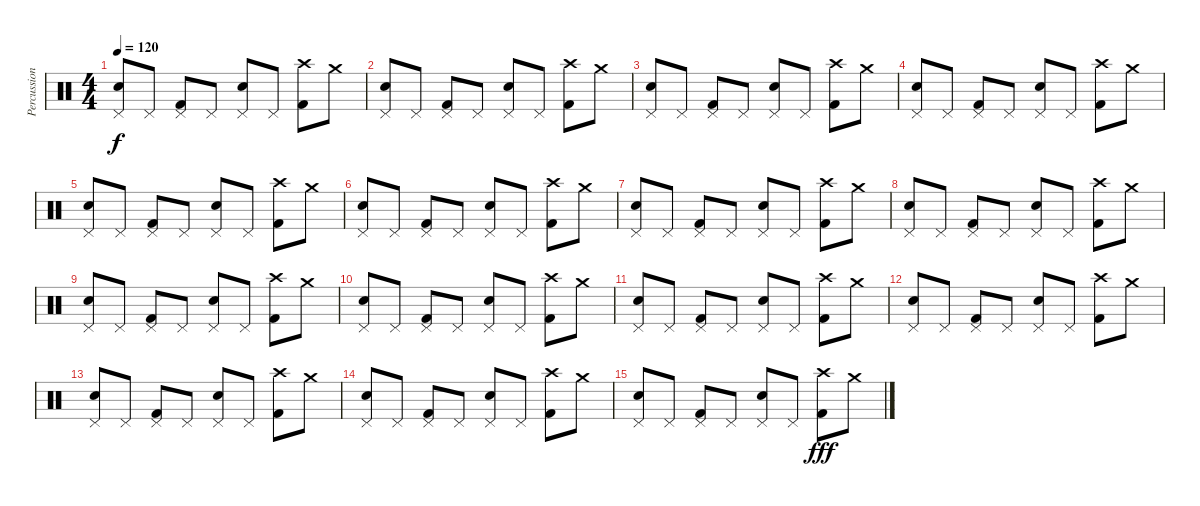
\track ("Percussion" "Percussion") {instrument percussion}
\staff {score}
\articulation defaults
\ts (4 4)
\tempo 120
\clef neutral
\ks c
("Pedal Hi-Hat (hit)" "Snare (hit) 2").8{dy f} "Pedal Hi-Hat (hit)".8 ("Pedal Hi-Hat (hit)" "Kick (hit) 2").8 "Pedal Hi-Hat (hit)".8 ("Pedal Hi-Hat (hit)" "Snare (hit) 2").8 "Pedal Hi-Hat (hit)".8 ("Crash high (hit)" "Kick (hit) 2").8 "Crash medium (hit)".8 |
("Pedal Hi-Hat (hit)" "Snare (hit) 2").8 "Pedal Hi-Hat (hit)".8 ("Pedal Hi-Hat (hit)" "Kick (hit) 2").8 "Pedal Hi-Hat (hit)".8 ("Pedal Hi-Hat (hit)" "Snare (hit) 2").8 "Pedal Hi-Hat (hit)".8 ("Crash high (hit)" "Kick (hit) 2").8 "Crash medium (hit)".8 |
("Pedal Hi-Hat (hit)" "Snare (hit) 2").8 "Pedal Hi-Hat (hit)".8 ("Pedal Hi-Hat (hit)" "Kick (hit) 2").8 "Pedal Hi-Hat (hit)".8 ("Pedal Hi-Hat (hit)" "Snare (hit) 2").8 "Pedal Hi-Hat (hit)".8 ("Crash high (hit)" "Kick (hit) 2").8 "Crash medium (hit)".8 |
("Pedal Hi-Hat (hit)" "Snare (hit) 2").8 "Pedal Hi-Hat (hit)".8 ("Pedal Hi-Hat (hit)" "Kick (hit) 2").8 "Pedal Hi-Hat (hit)".8 ("Pedal Hi-Hat (hit)" "Snare (hit) 2").8 "Pedal Hi-Hat (hit)".8 ("Crash high (hit)" "Kick (hit) 2").8 "Crash medium (hit)".8 |
("Pedal Hi-Hat (hit)" "Snare (hit) 2").8 "Pedal Hi-Hat (hit)".8 ("Pedal Hi-Hat (hit)" "Kick (hit) 2").8 "Pedal Hi-Hat (hit)".8 ("Pedal Hi-Hat (hit)" "Snare (hit) 2").8 "Pedal Hi-Hat (hit)".8 ("Crash high (hit)" "Kick (hit) 2").8 "Crash medium (hit)".8 |
("Pedal Hi-Hat (hit)" "Snare (hit) 2").8 "Pedal Hi-Hat (hit)".8 ("Pedal Hi-Hat (hit)" "Kick (hit) 2").8 "Pedal Hi-Hat (hit)".8 ("Pedal Hi-Hat (hit)" "Snare (hit) 2").8 "Pedal Hi-Hat (hit)".8 ("Crash high (hit)" "Kick (hit) 2").8 "Crash medium (hit)".8 |
("Pedal Hi-Hat (hit)" "Snare (hit) 2").8 "Pedal Hi-Hat (hit)".8 ("Pedal Hi-Hat (hit)" "Kick (hit) 2").8 "Pedal Hi-Hat (hit)".8 ("Pedal Hi-Hat (hit)" "Snare (hit) 2").8 "Pedal Hi-Hat (hit)".8 ("Crash high (hit)" "Kick (hit) 2").8 "Crash medium (hit)".8 |
("Pedal Hi-Hat (hit)" "Snare (hit) 2").8 "Pedal Hi-Hat (hit)".8 ("Pedal Hi-Hat (hit)" "Kick (hit) 2").8 "Pedal Hi-Hat (hit)".8 ("Pedal Hi-Hat (hit)" "Snare (hit) 2").8 "Pedal Hi-Hat (hit)".8 ("Crash high (hit)" "Kick (hit) 2").8 "Crash medium (hit)".8 |
("Pedal Hi-Hat (hit)" "Snare (hit) 2").8 "Pedal Hi-Hat (hit)".8 ("Pedal Hi-Hat (hit)" "Kick (hit) 2").8 "Pedal Hi-Hat (hit)".8 ("Pedal Hi-Hat (hit)" "Snare (hit) 2").8 "Pedal Hi-Hat (hit)".8 ("Crash high (hit)" "Kick (hit) 2").8 "Crash medium (hit)".8 |
("Pedal Hi-Hat (hit)" "Snare (hit) 2").8 "Pedal Hi-Hat (hit)".8 ("Pedal Hi-Hat (hit)" "Kick (hit) 2").8 "Pedal Hi-Hat (hit)".8 ("Pedal Hi-Hat (hit)" "Snare (hit) 2").8 "Pedal Hi-Hat (hit)".8 ("Crash high (hit)" "Kick (hit) 2").8 "Crash medium (hit)".8 |
("Pedal Hi-Hat (hit)" "Snare (hit) 2").8 "Pedal Hi-Hat (hit)".8 ("Pedal Hi-Hat (hit)" "Kick (hit) 2").8 "Pedal Hi-Hat (hit)".8 ("Pedal Hi-Hat (hit)" "Snare (hit) 2").8 "Pedal Hi-Hat (hit)".8 ("Crash high (hit)" "Kick (hit) 2").8 "Crash medium (hit)".8 |
("Pedal Hi-Hat (hit)" "Snare (hit) 2").8 "Pedal Hi-Hat (hit)".8 ("Pedal Hi-Hat (hit)" "Kick (hit) 2").8 "Pedal Hi-Hat (hit)".8 ("Pedal Hi-Hat (hit)" "Snare (hit) 2").8 "Pedal Hi-Hat (hit)".8 ("Crash high (hit)" "Kick (hit) 2").8 "Crash medium (hit)".8 |
("Pedal Hi-Hat (hit)" "Snare (hit) 2").8 "Pedal Hi-Hat (hit)".8 ("Pedal Hi-Hat (hit)" "Kick (hit) 2").8 "Pedal Hi-Hat (hit)".8 ("Pedal Hi-Hat (hit)" "Snare (hit) 2").8 "Pedal Hi-Hat (hit)".8 ("Crash high (hit)" "Kick (hit) 2").8 "Crash medium (hit)".8 |
("Pedal Hi-Hat (hit)" "Snare (hit) 2").8 "Pedal Hi-Hat (hit)".8 ("Pedal Hi-Hat (hit)" "Kick (hit) 2").8 "Pedal Hi-Hat (hit)".8 ("Pedal Hi-Hat (hit)" "Snare (hit) 2").8 "Pedal Hi-Hat (hit)".8 ("Crash high (hit)" "Kick (hit) 2").8 "Crash medium (hit)".8 |
("Pedal Hi-Hat (hit)" "Snare (hit) 2").8 "Pedal Hi-Hat (hit)".8 ("Pedal Hi-Hat (hit)" "Kick (hit) 2").8 "Pedal Hi-Hat (hit)".8 ("Pedal Hi-Hat (hit)" "Snare (hit) 2").8 "Pedal Hi-Hat (hit)".8 ("Crash high (hit)" "Kick (hit) 2").8{dy fff} "Crash medium (hit)".8
